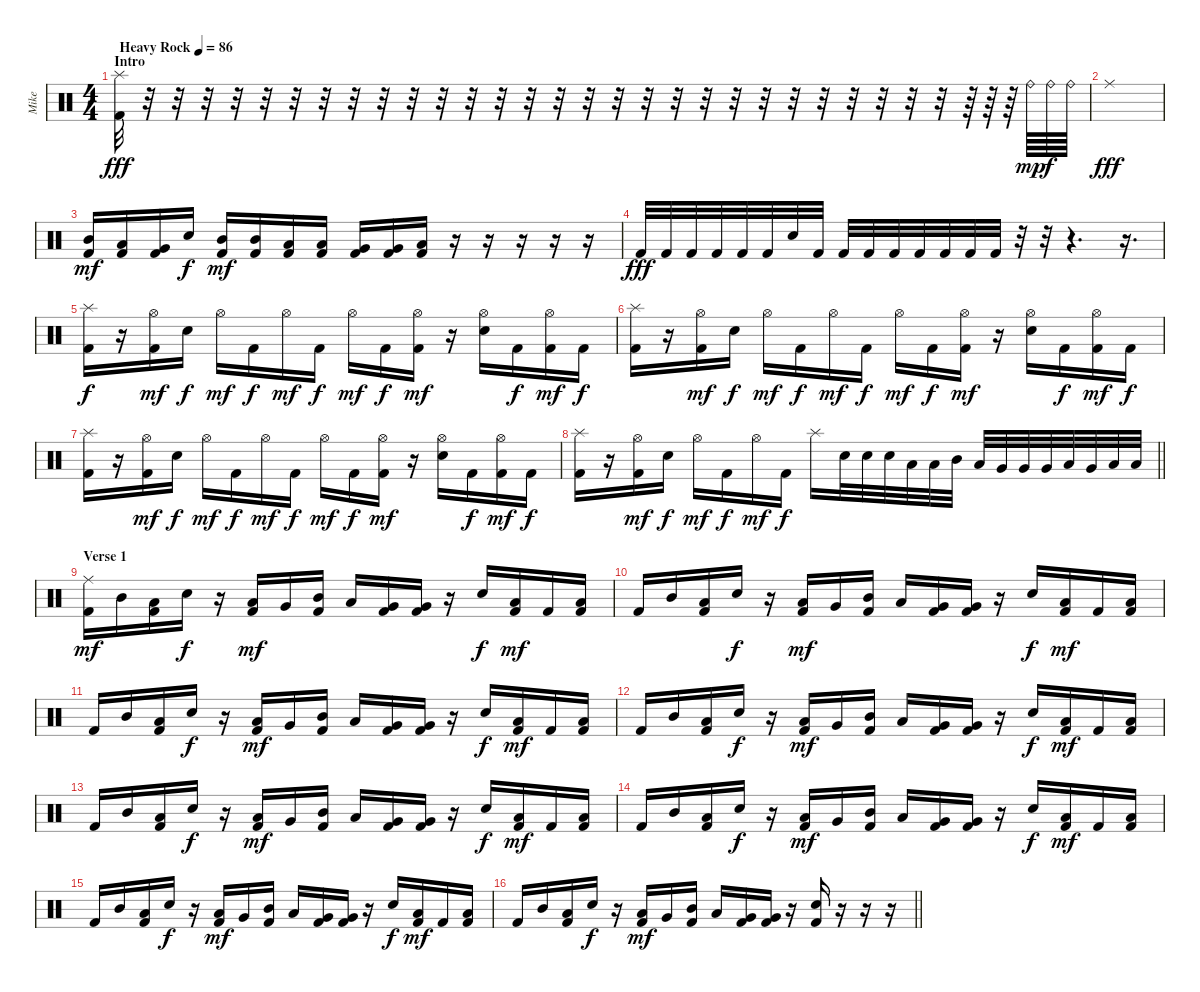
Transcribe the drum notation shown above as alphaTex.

\track ("Mike" "Mike") {instrument percussion}
\staff {score}
\articulation defaults
\ts (4 4)
\section ("" "Intro")
\tempo (86 "Heavy Rock")
\clef neutral
\ks c
("Splash (hit)" "Kick (hit) 2").32{dy fff} r.32 r.32 r.32 r.32 r.32 r.32 r.32 r.32 r.32 r.32 r.32 r.32 r.32 r.32 r.32 r.32 r.32 r.32 r.32 r.32 r.32 r.32 r.32 r.32 r.32 r.32 r.32 r.32 r.64 r.64 r.64 "Ride (bell)".64{dy mp} "Ride (bell)".64{dy f} "Ride (bell)".64 |
"Ride (middle)".1{dy fff} |
("Mid Tom (hit)" "Kick (hit) 2").16{dy mf} ("Low Tom (hit)" "Kick (hit) 2").16 ("Very Low Tom (hit)" "Kick (hit) 2").16 "Snare (hit) 2".16{dy f} ("Mid Tom (hit)" "Kick (hit) 2").16{dy mf} ("Mid Tom (hit)" "Kick (hit) 2").16 ("Low Tom (hit)" "Kick (hit) 2").16 ("Low Tom (hit)" "Kick (hit) 2").16 ("Very Low Tom (hit)" "Kick (hit) 2").16 ("Very Low Tom (hit)" "Kick (hit) 2").16 ("Low Floor Tom (hit)" "Kick (hit) 2").16 r.16 r.16 r.16 r.16 r.16 |
"Kick (hit) 2".32{dy fff} "Kick (hit) 2".32 "Kick (hit) 2".32 "Kick (hit) 2".32 "Kick (hit) 2".32 "Kick (hit) 2".32 "Snare (hit) 2".32 "Kick (hit) 2".32 "Kick (hit) 2".32 "Kick (hit) 2".32 "Kick (hit) 2".32 "Kick (hit) 2".32 "Kick (hit) 2".32 "Kick (hit) 2".32 "Kick (hit) 2".32 r.32 r.32 r.4{d} r.16{d} |
("Splash (hit)" "Kick (hit) 2").16{dy f} r.16 ("Hi-Hat (open)" "Kick (hit) 2").16{dy mf} "Snare (hit) 2".16{dy f} "Hi-Hat (open)".16{dy mf} "Kick (hit) 2".16{dy f} "Hi-Hat (open)".16{dy mf} "Kick (hit) 2".16{dy f} "Hi-Hat (open)".16{dy mf} "Kick (hit) 2".16{dy f} ("Hi-Hat (open)" "Kick (hit) 2").16{dy mf} r.16 ("Hi-Hat (open)" "Snare (hit) 2").16 "Kick (hit) 2".16{dy f} ("Hi-Hat (open)" "Kick (hit) 2").16{dy mf} "Kick (hit) 2".16{dy f} |
("Splash (hit)" "Kick (hit) 2").16 r.16 ("Hi-Hat (open)" "Kick (hit) 2").16{dy mf} "Snare (hit) 2".16{dy f} "Hi-Hat (open)".16{dy mf} "Kick (hit) 2".16{dy f} "Hi-Hat (open)".16{dy mf} "Kick (hit) 2".16{dy f} "Hi-Hat (open)".16{dy mf} "Kick (hit) 2".16{dy f} ("Hi-Hat (open)" "Kick (hit) 2").16{dy mf} r.16 ("Hi-Hat (open)" "Snare (hit) 2").16 "Kick (hit) 2".16{dy f} ("Hi-Hat (open)" "Kick (hit) 2").16{dy mf} "Kick (hit) 2".16{dy f} |
("Splash (hit)" "Kick (hit) 2").16 r.16 ("Hi-Hat (open)" "Kick (hit) 2").16{dy mf} "Snare (hit) 2".16{dy f} "Hi-Hat (open)".16{dy mf} "Kick (hit) 2".16{dy f} "Hi-Hat (open)".16{dy mf} "Kick (hit) 2".16{dy f} "Hi-Hat (open)".16{dy mf} "Kick (hit) 2".16{dy f} ("Hi-Hat (open)" "Kick (hit) 2").16{dy mf} r.16 ("Hi-Hat (open)" "Snare (hit) 2").16 "Kick (hit) 2".16{dy f} ("Hi-Hat (open)" "Kick (hit) 2").16{dy mf} "Kick (hit) 2".16{dy f} |
\barLineRight lightlight
("Splash (hit)" "Kick (hit) 2").16 r.16 ("Hi-Hat (open)" "Kick (hit) 2").16{dy mf} "Snare (hit) 2".16{dy f} "Hi-Hat (open)".16{dy mf} "Kick (hit) 2".16{dy f} "Hi-Hat (open)".16{dy mf} "Kick (hit) 2".16{dy f} "Splash (hit)".16 "Snare (hit) 2".32 "Snare (hit) 2".32 "Snare (hit) 2".32 "Low Tom (hit)".32 "Low Tom (hit)".32 "Mid Tom (hit)".32 "Low Tom (hit)".32 "Very Low Tom (hit)".32 "Very Low Tom (hit)".32 "Very Low Tom (hit)".32 "Low Tom (hit)".32 "Very Low Tom (hit)".32 "Low Floor Tom (hit)".32 "Low Floor Tom (hit)".32 |
\section ("" "Verse 1")
("Ride (middle)" "Kick (hit) 2").16{dy mf} "Mid Tom (hit)".16 ("Low Tom (hit)" "Kick (hit) 2").16 "Snare (hit) 2".16{dy f} r.16 ("Low Tom (hit)" "Kick (hit) 2").16{dy mf} "Very Low Tom (hit)".16 ("Mid Tom (hit)" "Kick (hit) 2").16 "Low Tom (hit)".16 ("Very Low Tom (hit)" "Kick (hit) 2").16 ("Very Low Tom (hit)" "Kick (hit) 2").16 r.16 "Snare (hit) 2".16{dy f} ("Low Tom (hit)" "Kick (hit) 2").16{dy mf} "Kick (hit) 2".16 ("Low Tom (hit)" "Kick (hit) 2").16 |
"Kick (hit) 2".16 "Mid Tom (hit)".16 ("Low Tom (hit)" "Kick (hit) 2").16 "Snare (hit) 2".16{dy f} r.16 ("Low Tom (hit)" "Kick (hit) 2").16{dy mf} "Very Low Tom (hit)".16 ("Mid Tom (hit)" "Kick (hit) 2").16 "Low Tom (hit)".16 ("Very Low Tom (hit)" "Kick (hit) 2").16 ("Very Low Tom (hit)" "Kick (hit) 2").16 r.16 "Snare (hit) 2".16{dy f} ("Low Tom (hit)" "Kick (hit) 2").16{dy mf} "Kick (hit) 2".16 ("Low Tom (hit)" "Kick (hit) 2").16 |
"Kick (hit) 2".16 "Mid Tom (hit)".16 ("Low Tom (hit)" "Kick (hit) 2").16 "Snare (hit) 2".16{dy f} r.16 ("Low Tom (hit)" "Kick (hit) 2").16{dy mf} "Very Low Tom (hit)".16 ("Mid Tom (hit)" "Kick (hit) 2").16 "Low Tom (hit)".16 ("Very Low Tom (hit)" "Kick (hit) 2").16 ("Very Low Tom (hit)" "Kick (hit) 2").16 r.16 "Snare (hit) 2".16{dy f} ("Low Tom (hit)" "Kick (hit) 2").16{dy mf} "Kick (hit) 2".16 ("Low Tom (hit)" "Kick (hit) 2").16 |
"Kick (hit) 2".16 "Mid Tom (hit)".16 ("Low Tom (hit)" "Kick (hit) 2").16 "Snare (hit) 2".16{dy f} r.16 ("Low Tom (hit)" "Kick (hit) 2").16{dy mf} "Very Low Tom (hit)".16 ("Mid Tom (hit)" "Kick (hit) 2").16 "Low Tom (hit)".16 ("Very Low Tom (hit)" "Kick (hit) 2").16 ("Very Low Tom (hit)" "Kick (hit) 2").16 r.16 "Snare (hit) 2".16{dy f} ("Low Tom (hit)" "Kick (hit) 2").16{dy mf} "Kick (hit) 2".16 ("Low Tom (hit)" "Kick (hit) 2").16 |
"Kick (hit) 2".16 "Mid Tom (hit)".16 ("Low Tom (hit)" "Kick (hit) 2").16 "Snare (hit) 2".16{dy f} r.16 ("Low Tom (hit)" "Kick (hit) 2").16{dy mf} "Very Low Tom (hit)".16 ("Mid Tom (hit)" "Kick (hit) 2").16 "Low Tom (hit)".16 ("Very Low Tom (hit)" "Kick (hit) 2").16 ("Very Low Tom (hit)" "Kick (hit) 2").16 r.16 "Snare (hit) 2".16{dy f} ("Low Tom (hit)" "Kick (hit) 2").16{dy mf} "Kick (hit) 2".16 ("Low Tom (hit)" "Kick (hit) 2").16 |
"Kick (hit) 2".16 "Mid Tom (hit)".16 ("Low Tom (hit)" "Kick (hit) 2").16 "Snare (hit) 2".16{dy f} r.16 ("Low Tom (hit)" "Kick (hit) 2").16{dy mf} "Very Low Tom (hit)".16 ("Mid Tom (hit)" "Kick (hit) 2").16 "Low Tom (hit)".16 ("Very Low Tom (hit)" "Kick (hit) 2").16 ("Very Low Tom (hit)" "Kick (hit) 2").16 r.16 "Snare (hit) 2".16{dy f} ("Low Tom (hit)" "Kick (hit) 2").16{dy mf} "Kick (hit) 2".16 ("Low Tom (hit)" "Kick (hit) 2").16 |
"Kick (hit) 2".16 "Mid Tom (hit)".16 ("Low Tom (hit)" "Kick (hit) 2").16 "Snare (hit) 2".16{dy f} r.16 ("Low Tom (hit)" "Kick (hit) 2").16{dy mf} "Very Low Tom (hit)".16 ("Mid Tom (hit)" "Kick (hit) 2").16 "Low Tom (hit)".16 ("Very Low Tom (hit)" "Kick (hit) 2").16 ("Very Low Tom (hit)" "Kick (hit) 2").16 r.16 "Snare (hit) 2".16{dy f} ("Low Tom (hit)" "Kick (hit) 2").16{dy mf} "Kick (hit) 2".16 ("Low Tom (hit)" "Kick (hit) 2").16 |
\barLineRight lightlight "Kick (hit) 2".16 "Mid Tom (hit)".16
("Low Tom (hit)" "Kick (hit) 2").16 "Snare (hit) 2".16{dy f} r.16 ("Low Tom (hit)" "Kick (hit) 2").16{dy mf} "Very Low Tom (hit)".16 ("Mid Tom (hit)" "Kick (hit) 2").16 "Low Tom (hit)".16 ("Very Low Tom (hit)" "Kick (hit) 2").16 ("Very Low Tom (hit)" "Kick (hit) 2").16 r.16 ("Snare (hit) 2" "Kick (hit) 2").16 r.16 r.16 r.16
